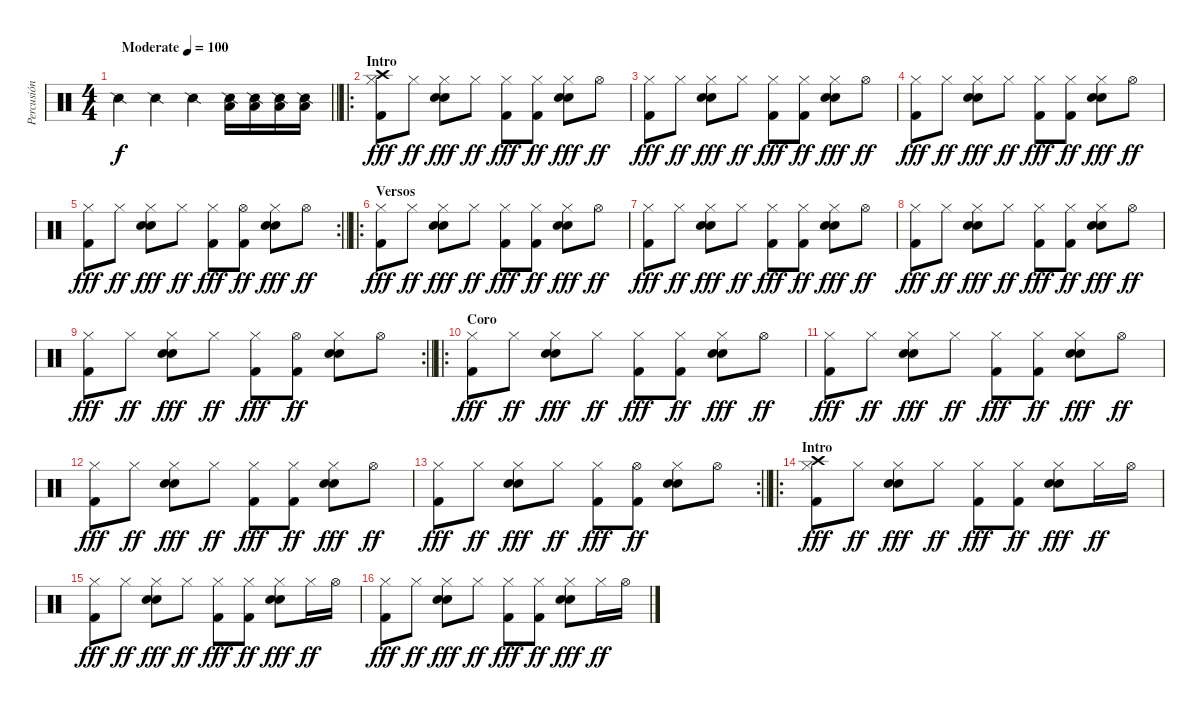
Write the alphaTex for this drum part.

\track ("Percusión" "Percusión") {instrument percussion}
\staff {score}
\articulation defaults
\ts (4 4)
\tempo (100 "Moderate")
\clef neutral
\barLineRight lightlight
\ks c "Snare (side stick) 2".4{dy f} "Snare (side stick) 2".4 "Snare (side stick) 2".4
("Low Tom (hit)" "Snare (side stick) 2").16 ("Low Tom (hit)" "Snare (side stick) 2").16 ("Low Tom (hit)" "Snare (side stick) 2").16 ("Low Tom (hit)" "Snare (side stick) 2").16 |
\ro
\section ("" "Intro")
("Crash high (hit)" "Hi-Hat (closed)" "Kick (hit) 2").8{dy fff} "Hi-Hat (closed)".8{dy ff} ("Hi-Hat (closed)" "Electric Snare (hit)" "Electric Snare (hit)").8{dy fff} "Hi-Hat (closed)".8{dy ff} ("Hi-Hat (closed)" "Kick (hit) 2").8{dy fff} ("Hi-Hat (closed)" "Kick (hit) 2").8{dy ff} ("Hi-Hat (closed)" "Electric Snare (hit)" "Electric Snare (hit)").8{dy fff} "Hi-Hat (open)".8{dy ff} |
("Hi-Hat (closed)" "Kick (hit) 2").8{dy fff} "Hi-Hat (closed)".8{dy ff} ("Hi-Hat (closed)" "Electric Snare (hit)" "Electric Snare (hit)").8{dy fff} "Hi-Hat (closed)".8{dy ff} ("Hi-Hat (closed)" "Kick (hit) 2").8{dy fff} ("Hi-Hat (closed)" "Kick (hit) 2").8{dy ff} ("Hi-Hat (closed)" "Electric Snare (hit)" "Electric Snare (hit)").8{dy fff} "Hi-Hat (open)".8{dy ff} |
("Hi-Hat (closed)" "Kick (hit) 2").8{dy fff} "Hi-Hat (closed)".8{dy ff} ("Hi-Hat (closed)" "Electric Snare (hit)" "Electric Snare (hit)").8{dy fff} "Hi-Hat (closed)".8{dy ff} ("Hi-Hat (closed)" "Kick (hit) 2").8{dy fff} ("Hi-Hat (closed)" "Kick (hit) 2").8{dy ff} ("Hi-Hat (closed)" "Electric Snare (hit)" "Electric Snare (hit)").8{dy fff} "Hi-Hat (open)".8{dy ff} |
\rc 2
\barLineRight lightlight
("Hi-Hat (closed)" "Kick (hit) 2").8{dy fff} "Hi-Hat (closed)".8{dy ff} ("Hi-Hat (closed)" "Electric Snare (hit)" "Electric Snare (hit)").8{dy fff} "Hi-Hat (closed)".8{dy ff} ("Hi-Hat (closed)" "Kick (hit) 2").8{dy fff} ("Hi-Hat (open)" "Kick (hit) 2").8{dy ff} ("Hi-Hat (closed)" "Electric Snare (hit)" "Electric Snare (hit)").8{dy fff} "Hi-Hat (open)".8{dy ff} |
\ro
\section ("" "Versos")
("Hi-Hat (closed)" "Kick (hit) 2").8{dy fff} "Hi-Hat (closed)".8{dy ff} ("Hi-Hat (closed)" "Electric Snare (hit)" "Electric Snare (hit)").8{dy fff} "Hi-Hat (closed)".8{dy ff} ("Hi-Hat (closed)" "Kick (hit) 2").8{dy fff} ("Hi-Hat (closed)" "Kick (hit) 2").8{dy ff} ("Hi-Hat (closed)" "Electric Snare (hit)" "Electric Snare (hit)").8{dy fff} "Hi-Hat (open)".8{dy ff} |
("Hi-Hat (closed)" "Kick (hit) 2").8{dy fff} "Hi-Hat (closed)".8{dy ff} ("Hi-Hat (closed)" "Electric Snare (hit)" "Electric Snare (hit)").8{dy fff} "Hi-Hat (closed)".8{dy ff} ("Hi-Hat (closed)" "Kick (hit) 2").8{dy fff} ("Hi-Hat (closed)" "Kick (hit) 2").8{dy ff} ("Hi-Hat (closed)" "Electric Snare (hit)" "Electric Snare (hit)").8{dy fff} "Hi-Hat (open)".8{dy ff} |
("Hi-Hat (closed)" "Kick (hit) 2").8{dy fff} "Hi-Hat (closed)".8{dy ff} ("Hi-Hat (closed)" "Electric Snare (hit)" "Electric Snare (hit)").8{dy fff} "Hi-Hat (closed)".8{dy ff} ("Hi-Hat (closed)" "Kick (hit) 2").8{dy fff} ("Hi-Hat (closed)" "Kick (hit) 2").8{dy ff} ("Hi-Hat (closed)" "Electric Snare (hit)" "Electric Snare (hit)").8{dy fff} "Hi-Hat (open)".8{dy ff} |
\rc 2
\barLineRight lightlight
("Hi-Hat (closed)" "Kick (hit) 2").8{dy fff} "Hi-Hat (closed)".8{dy ff} ("Hi-Hat (closed)" "Electric Snare (hit)" "Electric Snare (hit)").8{dy fff} "Hi-Hat (closed)".8{dy ff} ("Hi-Hat (closed)" "Kick (hit) 2").8{dy fff} ("Hi-Hat (open)" "Kick (hit) 2").8{dy ff} ("Hi-Hat (closed)" "Electric Snare (hit)" "Electric Snare (hit)").8 "Hi-Hat (open)".8 |
\ro
\section ("" "Coro")
("Hi-Hat (closed)" "Kick (hit) 2").8{dy fff} "Hi-Hat (closed)".8{dy ff} ("Hi-Hat (closed)" "Electric Snare (hit)" "Electric Snare (hit)").8{dy fff} "Hi-Hat (closed)".8{dy ff} ("Hi-Hat (closed)" "Kick (hit) 2").8{dy fff} ("Hi-Hat (closed)" "Kick (hit) 2").8{dy ff} ("Hi-Hat (closed)" "Electric Snare (hit)" "Electric Snare (hit)").8{dy fff} "Hi-Hat (open)".8{dy ff} |
("Hi-Hat (closed)" "Kick (hit) 2").8{dy fff} "Hi-Hat (closed)".8{dy ff} ("Hi-Hat (closed)" "Electric Snare (hit)" "Electric Snare (hit)").8{dy fff} "Hi-Hat (closed)".8{dy ff} ("Hi-Hat (closed)" "Kick (hit) 2").8{dy fff} ("Hi-Hat (closed)" "Kick (hit) 2").8{dy ff} ("Hi-Hat (closed)" "Electric Snare (hit)" "Electric Snare (hit)").8{dy fff} "Hi-Hat (open)".8{dy ff} |
("Hi-Hat (closed)" "Kick (hit) 2").8{dy fff} "Hi-Hat (closed)".8{dy ff} ("Hi-Hat (closed)" "Electric Snare (hit)" "Electric Snare (hit)").8{dy fff} "Hi-Hat (closed)".8{dy ff} ("Hi-Hat (closed)" "Kick (hit) 2").8{dy fff} ("Hi-Hat (closed)" "Kick (hit) 2").8{dy ff} ("Hi-Hat (closed)" "Electric Snare (hit)" "Electric Snare (hit)").8{dy fff} "Hi-Hat (open)".8{dy ff} |
\rc 2
\barLineRight lightlight
("Hi-Hat (closed)" "Kick (hit) 2").8{dy fff} "Hi-Hat (closed)".8{dy ff} ("Hi-Hat (closed)" "Electric Snare (hit)" "Electric Snare (hit)").8{dy fff} "Hi-Hat (closed)".8{dy ff} ("Hi-Hat (closed)" "Kick (hit) 2").8{dy fff} ("Hi-Hat (open)" "Kick (hit) 2").8{dy ff} ("Hi-Hat (closed)" "Electric Snare (hit)" "Electric Snare (hit)").8 "Hi-Hat (open)".8 |
\ro
\section ("" "Intro")
("Crash high (hit)" "Hi-Hat (closed)" "Kick (hit) 2").8{dy fff} "Hi-Hat (closed)".8{dy ff} ("Hi-Hat (closed)" "Electric Snare (hit)" "Electric Snare (hit)").8{dy fff} "Hi-Hat (closed)".8{dy ff} ("Hi-Hat (closed)" "Kick (hit) 2").8{dy fff} ("Hi-Hat (closed)" "Kick (hit) 2").8{dy ff} ("Hi-Hat (closed)" "Electric Snare (hit)" "Electric Snare (hit)").8{dy fff} "Hi-Hat (closed)".16{dy ff} "Hi-Hat (open)".16 |
("Hi-Hat (closed)" "Kick (hit) 2").8{dy fff} "Hi-Hat (closed)".8{dy ff} ("Hi-Hat (closed)" "Electric Snare (hit)" "Electric Snare (hit)").8{dy fff} "Hi-Hat (closed)".8{dy ff} ("Hi-Hat (closed)" "Kick (hit) 2").8{dy fff} ("Hi-Hat (closed)" "Kick (hit) 2").8{dy ff} ("Hi-Hat (closed)" "Electric Snare (hit)" "Electric Snare (hit)").8{dy fff} "Hi-Hat (closed)".16{dy ff} "Hi-Hat (open)".16 |
("Hi-Hat (closed)" "Kick (hit) 2").8{dy fff} "Hi-Hat (closed)".8{dy ff} ("Hi-Hat (closed)" "Electric Snare (hit)" "Electric Snare (hit)").8{dy fff} "Hi-Hat (closed)".8{dy ff} ("Hi-Hat (closed)" "Kick (hit) 2").8{dy fff} ("Hi-Hat (closed)" "Kick (hit) 2").8{dy ff} ("Hi-Hat (closed)" "Electric Snare (hit)" "Electric Snare (hit)").8{dy fff} "Hi-Hat (closed)".16{dy ff} "Hi-Hat (open)".16
